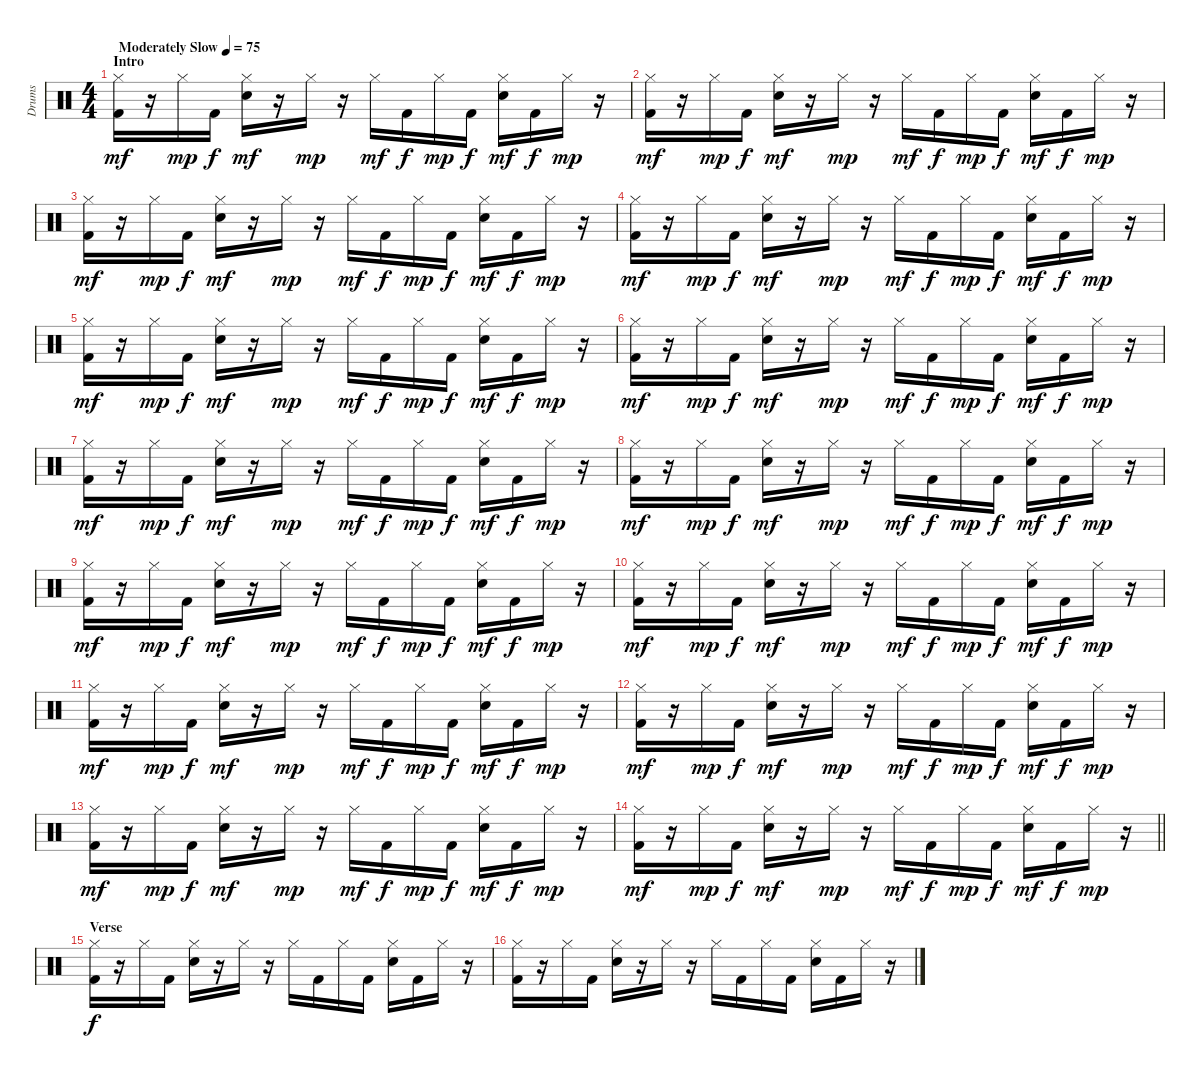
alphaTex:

\track ("Drums" "Drums") {instrument percussion}
\staff {score}
\articulation defaults
\ts (4 4)
\section ("" "Intro")
\tempo (75 "Moderately Slow")
\clef neutral
\ks c
("Hi-Hat (closed)" "Kick (hit) 2").16{dy mf} r.16 "Hi-Hat (closed)".16{dy mp} "Kick (hit) 2".16{dy f} ("Hi-Hat (closed)" "Electric Snare (hit)").16{dy mf} r.16 "Hi-Hat (closed)".16{dy mp} r.16 "Hi-Hat (closed)".16{dy mf} "Kick (hit) 2".16{dy f} "Hi-Hat (closed)".16{dy mp} "Kick (hit) 2".16{dy f} ("Hi-Hat (closed)" "Electric Snare (hit)").16{dy mf} "Kick (hit) 2".16{dy f} "Hi-Hat (closed)".16{dy mp} r.16 |
("Hi-Hat (closed)" "Kick (hit) 2").16{dy mf} r.16 "Hi-Hat (closed)".16{dy mp} "Kick (hit) 2".16{dy f} ("Hi-Hat (closed)" "Electric Snare (hit)").16{dy mf} r.16 "Hi-Hat (closed)".16{dy mp} r.16 "Hi-Hat (closed)".16{dy mf} "Kick (hit) 2".16{dy f} "Hi-Hat (closed)".16{dy mp} "Kick (hit) 2".16{dy f} ("Hi-Hat (closed)" "Electric Snare (hit)").16{dy mf} "Kick (hit) 2".16{dy f} "Hi-Hat (closed)".16{dy mp} r.16 |
("Hi-Hat (closed)" "Kick (hit) 2").16{dy mf} r.16 "Hi-Hat (closed)".16{dy mp} "Kick (hit) 2".16{dy f} ("Hi-Hat (closed)" "Electric Snare (hit)").16{dy mf} r.16 "Hi-Hat (closed)".16{dy mp} r.16 "Hi-Hat (closed)".16{dy mf} "Kick (hit) 2".16{dy f} "Hi-Hat (closed)".16{dy mp} "Kick (hit) 2".16{dy f} ("Hi-Hat (closed)" "Electric Snare (hit)").16{dy mf} "Kick (hit) 2".16{dy f} "Hi-Hat (closed)".16{dy mp} r.16 |
("Hi-Hat (closed)" "Kick (hit) 2").16{dy mf} r.16 "Hi-Hat (closed)".16{dy mp} "Kick (hit) 2".16{dy f} ("Hi-Hat (closed)" "Electric Snare (hit)").16{dy mf} r.16 "Hi-Hat (closed)".16{dy mp} r.16 "Hi-Hat (closed)".16{dy mf} "Kick (hit) 2".16{dy f} "Hi-Hat (closed)".16{dy mp} "Kick (hit) 2".16{dy f} ("Hi-Hat (closed)" "Electric Snare (hit)").16{dy mf} "Kick (hit) 2".16{dy f} "Hi-Hat (closed)".16{dy mp} r.16 |
("Hi-Hat (closed)" "Kick (hit) 2").16{dy mf} r.16 "Hi-Hat (closed)".16{dy mp} "Kick (hit) 2".16{dy f} ("Hi-Hat (closed)" "Electric Snare (hit)").16{dy mf} r.16 "Hi-Hat (closed)".16{dy mp} r.16 "Hi-Hat (closed)".16{dy mf} "Kick (hit) 2".16{dy f} "Hi-Hat (closed)".16{dy mp} "Kick (hit) 2".16{dy f} ("Hi-Hat (closed)" "Electric Snare (hit)").16{dy mf} "Kick (hit) 2".16{dy f} "Hi-Hat (closed)".16{dy mp} r.16 |
("Hi-Hat (closed)" "Kick (hit) 2").16{dy mf} r.16 "Hi-Hat (closed)".16{dy mp} "Kick (hit) 2".16{dy f} ("Hi-Hat (closed)" "Electric Snare (hit)").16{dy mf} r.16 "Hi-Hat (closed)".16{dy mp} r.16 "Hi-Hat (closed)".16{dy mf} "Kick (hit) 2".16{dy f} "Hi-Hat (closed)".16{dy mp} "Kick (hit) 2".16{dy f} ("Hi-Hat (closed)" "Electric Snare (hit)").16{dy mf} "Kick (hit) 2".16{dy f} "Hi-Hat (closed)".16{dy mp} r.16 |
("Hi-Hat (closed)" "Kick (hit) 2").16{dy mf} r.16 "Hi-Hat (closed)".16{dy mp} "Kick (hit) 2".16{dy f} ("Hi-Hat (closed)" "Electric Snare (hit)").16{dy mf} r.16 "Hi-Hat (closed)".16{dy mp} r.16 "Hi-Hat (closed)".16{dy mf} "Kick (hit) 2".16{dy f} "Hi-Hat (closed)".16{dy mp} "Kick (hit) 2".16{dy f} ("Hi-Hat (closed)" "Electric Snare (hit)").16{dy mf} "Kick (hit) 2".16{dy f} "Hi-Hat (closed)".16{dy mp} r.16 |
("Hi-Hat (closed)" "Kick (hit) 2").16{dy mf} r.16 "Hi-Hat (closed)".16{dy mp} "Kick (hit) 2".16{dy f} ("Hi-Hat (closed)" "Electric Snare (hit)").16{dy mf} r.16 "Hi-Hat (closed)".16{dy mp} r.16 "Hi-Hat (closed)".16{dy mf} "Kick (hit) 2".16{dy f} "Hi-Hat (closed)".16{dy mp} "Kick (hit) 2".16{dy f} ("Hi-Hat (closed)" "Electric Snare (hit)").16{dy mf} "Kick (hit) 2".16{dy f} "Hi-Hat (closed)".16{dy mp} r.16 |
("Hi-Hat (closed)" "Kick (hit) 2").16{dy mf} r.16 "Hi-Hat (closed)".16{dy mp} "Kick (hit) 2".16{dy f} ("Hi-Hat (closed)" "Electric Snare (hit)").16{dy mf} r.16 "Hi-Hat (closed)".16{dy mp} r.16 "Hi-Hat (closed)".16{dy mf} "Kick (hit) 2".16{dy f} "Hi-Hat (closed)".16{dy mp} "Kick (hit) 2".16{dy f} ("Hi-Hat (closed)" "Electric Snare (hit)").16{dy mf} "Kick (hit) 2".16{dy f} "Hi-Hat (closed)".16{dy mp} r.16 |
("Hi-Hat (closed)" "Kick (hit) 2").16{dy mf} r.16 "Hi-Hat (closed)".16{dy mp} "Kick (hit) 2".16{dy f} ("Hi-Hat (closed)" "Electric Snare (hit)").16{dy mf} r.16 "Hi-Hat (closed)".16{dy mp} r.16 "Hi-Hat (closed)".16{dy mf} "Kick (hit) 2".16{dy f} "Hi-Hat (closed)".16{dy mp} "Kick (hit) 2".16{dy f} ("Hi-Hat (closed)" "Electric Snare (hit)").16{dy mf} "Kick (hit) 2".16{dy f} "Hi-Hat (closed)".16{dy mp} r.16 |
("Hi-Hat (closed)" "Kick (hit) 2").16{dy mf} r.16 "Hi-Hat (closed)".16{dy mp} "Kick (hit) 2".16{dy f} ("Hi-Hat (closed)" "Electric Snare (hit)").16{dy mf} r.16 "Hi-Hat (closed)".16{dy mp} r.16 "Hi-Hat (closed)".16{dy mf} "Kick (hit) 2".16{dy f} "Hi-Hat (closed)".16{dy mp} "Kick (hit) 2".16{dy f} ("Hi-Hat (closed)" "Electric Snare (hit)").16{dy mf} "Kick (hit) 2".16{dy f} "Hi-Hat (closed)".16{dy mp} r.16 |
("Hi-Hat (closed)" "Kick (hit) 2").16{dy mf} r.16 "Hi-Hat (closed)".16{dy mp} "Kick (hit) 2".16{dy f} ("Hi-Hat (closed)" "Electric Snare (hit)").16{dy mf} r.16 "Hi-Hat (closed)".16{dy mp} r.16 "Hi-Hat (closed)".16{dy mf} "Kick (hit) 2".16{dy f} "Hi-Hat (closed)".16{dy mp} "Kick (hit) 2".16{dy f} ("Hi-Hat (closed)" "Electric Snare (hit)").16{dy mf} "Kick (hit) 2".16{dy f} "Hi-Hat (closed)".16{dy mp} r.16 |
("Hi-Hat (closed)" "Kick (hit) 2").16{dy mf} r.16 "Hi-Hat (closed)".16{dy mp} "Kick (hit) 2".16{dy f} ("Hi-Hat (closed)" "Electric Snare (hit)").16{dy mf} r.16 "Hi-Hat (closed)".16{dy mp} r.16 "Hi-Hat (closed)".16{dy mf} "Kick (hit) 2".16{dy f} "Hi-Hat (closed)".16{dy mp} "Kick (hit) 2".16{dy f} ("Hi-Hat (closed)" "Electric Snare (hit)").16{dy mf} "Kick (hit) 2".16{dy f} "Hi-Hat (closed)".16{dy mp} r.16 |
\barLineRight lightlight
("Hi-Hat (closed)" "Kick (hit) 2").16{dy mf} r.16 "Hi-Hat (closed)".16{dy mp} "Kick (hit) 2".16{dy f} ("Hi-Hat (closed)" "Electric Snare (hit)").16{dy mf} r.16 "Hi-Hat (closed)".16{dy mp} r.16 "Hi-Hat (closed)".16{dy mf} "Kick (hit) 2".16{dy f} "Hi-Hat (closed)".16{dy mp} "Kick (hit) 2".16{dy f} ("Hi-Hat (closed)" "Electric Snare (hit)").16{dy mf} "Kick (hit) 2".16{dy f} "Hi-Hat (closed)".16{dy mp} r.16 |
\section ("" "Verse")
("Hi-Hat (closed)" "Kick (hit) 2").16{dy f} r.16 "Hi-Hat (closed)".16 "Kick (hit) 2".16 ("Hi-Hat (closed)" "Electric Snare (hit)").16 r.16 "Hi-Hat (closed)".16 r.16 "Hi-Hat (closed)".16 "Kick (hit) 2".16 "Hi-Hat (closed)".16 "Kick (hit) 2".16 ("Hi-Hat (closed)" "Electric Snare (hit)").16 "Kick (hit) 2".16 "Hi-Hat (closed)".16 r.16 |
("Hi-Hat (closed)" "Kick (hit) 2").16 r.16 "Hi-Hat (closed)".16 "Kick (hit) 2".16 ("Hi-Hat (closed)" "Electric Snare (hit)").16 r.16 "Hi-Hat (closed)".16 r.16 "Hi-Hat (closed)".16 "Kick (hit) 2".16 "Hi-Hat (closed)".16 "Kick (hit) 2".16 ("Hi-Hat (closed)" "Electric Snare (hit)").16 "Kick (hit) 2".16 "Hi-Hat (closed)".16 r.16
